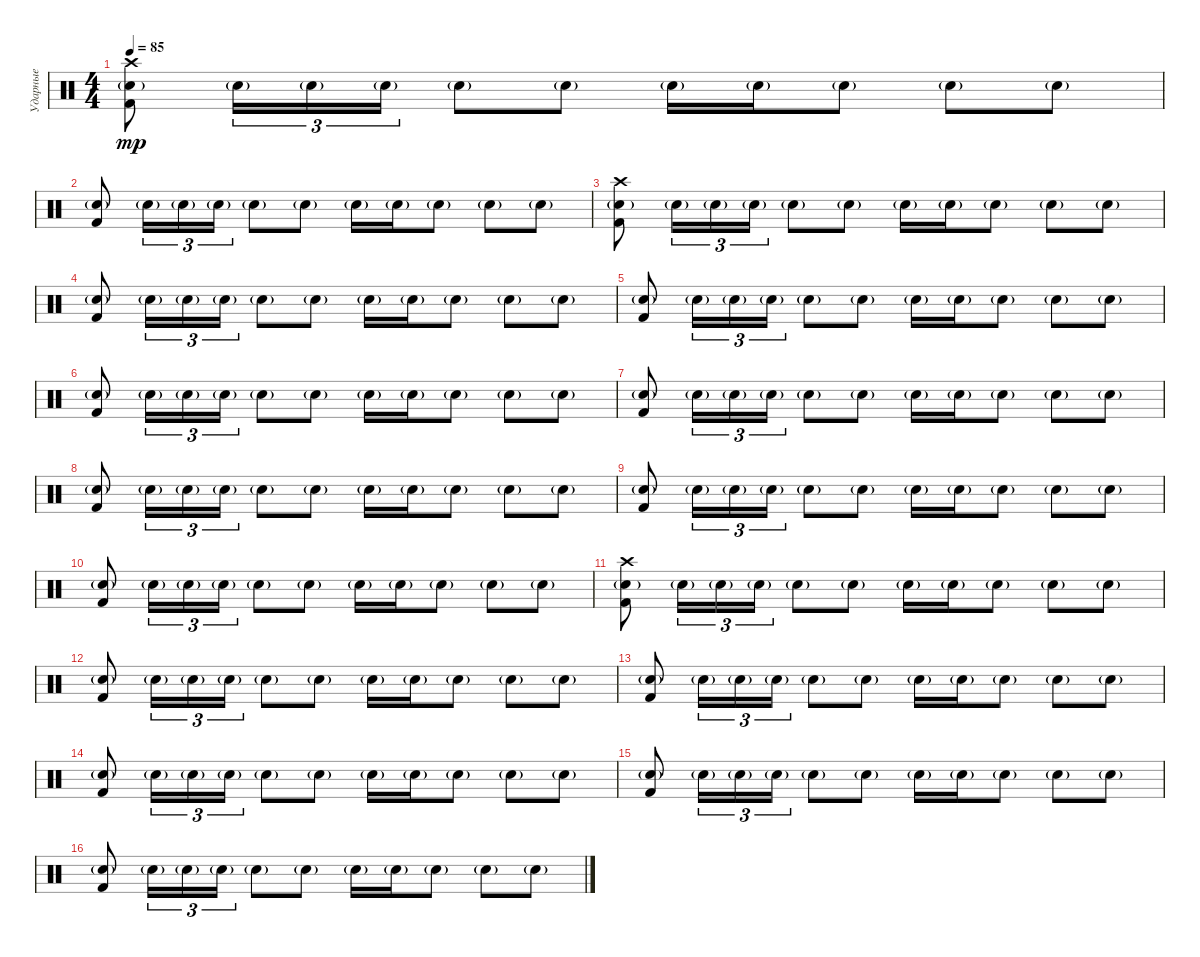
\track ("Ударные" "Ударные") {instrument percussion}
\staff {score}
\articulation defaults
\ts (4 4)
\tempo 85
\clef neutral
\ks c
("Crash high (hit)" "Electric Snare (hit)"{g} "Kick (hit) 2").8{dy mp} "Electric Snare (hit)"{g}.16{tu (3 2)} "Electric Snare (hit)"{g}.16{tu (3 2)} "Electric Snare (hit)"{g}.16{tu (3 2)} "Electric Snare (hit)"{g}.8 "Electric Snare (hit)"{g}.8 "Electric Snare (hit)"{g}.16 "Electric Snare (hit)"{g}.16 "Electric Snare (hit)"{g}.8 "Electric Snare (hit)"{g}.8 "Electric Snare (hit)"{g}.8 |
("Electric Snare (hit)"{g} "Kick (hit) 2").8 "Electric Snare (hit)"{g}.16{tu (3 2)} "Electric Snare (hit)"{g}.16{tu (3 2)} "Electric Snare (hit)"{g}.16{tu (3 2)} "Electric Snare (hit)"{g}.8 "Electric Snare (hit)"{g}.8 "Electric Snare (hit)"{g}.16 "Electric Snare (hit)"{g}.16 "Electric Snare (hit)"{g}.8 "Electric Snare (hit)"{g}.8 "Electric Snare (hit)"{g}.8 |
("Crash high (hit)" "Electric Snare (hit)"{g} "Kick (hit) 2").8 "Electric Snare (hit)"{g}.16{tu (3 2)} "Electric Snare (hit)"{g}.16{tu (3 2)} "Electric Snare (hit)"{g}.16{tu (3 2)} "Electric Snare (hit)"{g}.8 "Electric Snare (hit)"{g}.8 "Electric Snare (hit)"{g}.16 "Electric Snare (hit)"{g}.16 "Electric Snare (hit)"{g}.8 "Electric Snare (hit)"{g}.8 "Electric Snare (hit)"{g}.8 |
("Electric Snare (hit)"{g} "Kick (hit) 2").8 "Electric Snare (hit)"{g}.16{tu (3 2)} "Electric Snare (hit)"{g}.16{tu (3 2)} "Electric Snare (hit)"{g}.16{tu (3 2)} "Electric Snare (hit)"{g}.8 "Electric Snare (hit)"{g}.8 "Electric Snare (hit)"{g}.16 "Electric Snare (hit)"{g}.16 "Electric Snare (hit)"{g}.8 "Electric Snare (hit)"{g}.8 "Electric Snare (hit)"{g}.8 |
("Electric Snare (hit)"{g} "Kick (hit) 2").8 "Electric Snare (hit)"{g}.16{tu (3 2)} "Electric Snare (hit)"{g}.16{tu (3 2)} "Electric Snare (hit)"{g}.16{tu (3 2)} "Electric Snare (hit)"{g}.8 "Electric Snare (hit)"{g}.8 "Electric Snare (hit)"{g}.16 "Electric Snare (hit)"{g}.16 "Electric Snare (hit)"{g}.8 "Electric Snare (hit)"{g}.8 "Electric Snare (hit)"{g}.8 |
("Electric Snare (hit)"{g} "Kick (hit) 2").8 "Electric Snare (hit)"{g}.16{tu (3 2)} "Electric Snare (hit)"{g}.16{tu (3 2)} "Electric Snare (hit)"{g}.16{tu (3 2)} "Electric Snare (hit)"{g}.8 "Electric Snare (hit)"{g}.8 "Electric Snare (hit)"{g}.16 "Electric Snare (hit)"{g}.16 "Electric Snare (hit)"{g}.8 "Electric Snare (hit)"{g}.8 "Electric Snare (hit)"{g}.8 |
("Electric Snare (hit)"{g} "Kick (hit) 2").8 "Electric Snare (hit)"{g}.16{tu (3 2)} "Electric Snare (hit)"{g}.16{tu (3 2)} "Electric Snare (hit)"{g}.16{tu (3 2)} "Electric Snare (hit)"{g}.8 "Electric Snare (hit)"{g}.8 "Electric Snare (hit)"{g}.16 "Electric Snare (hit)"{g}.16 "Electric Snare (hit)"{g}.8 "Electric Snare (hit)"{g}.8 "Electric Snare (hit)"{g}.8 |
("Electric Snare (hit)"{g} "Kick (hit) 2").8 "Electric Snare (hit)"{g}.16{tu (3 2)} "Electric Snare (hit)"{g}.16{tu (3 2)} "Electric Snare (hit)"{g}.16{tu (3 2)} "Electric Snare (hit)"{g}.8 "Electric Snare (hit)"{g}.8 "Electric Snare (hit)"{g}.16 "Electric Snare (hit)"{g}.16 "Electric Snare (hit)"{g}.8 "Electric Snare (hit)"{g}.8 "Electric Snare (hit)"{g}.8 |
("Electric Snare (hit)"{g} "Kick (hit) 2").8 "Electric Snare (hit)"{g}.16{tu (3 2)} "Electric Snare (hit)"{g}.16{tu (3 2)} "Electric Snare (hit)"{g}.16{tu (3 2)} "Electric Snare (hit)"{g}.8 "Electric Snare (hit)"{g}.8 "Electric Snare (hit)"{g}.16 "Electric Snare (hit)"{g}.16 "Electric Snare (hit)"{g}.8 "Electric Snare (hit)"{g}.8 "Electric Snare (hit)"{g}.8 |
("Electric Snare (hit)"{g} "Kick (hit) 2").8 "Electric Snare (hit)"{g}.16{tu (3 2)} "Electric Snare (hit)"{g}.16{tu (3 2)} "Electric Snare (hit)"{g}.16{tu (3 2)} "Electric Snare (hit)"{g}.8 "Electric Snare (hit)"{g}.8 "Electric Snare (hit)"{g}.16 "Electric Snare (hit)"{g}.16 "Electric Snare (hit)"{g}.8 "Electric Snare (hit)"{g}.8 "Electric Snare (hit)"{g}.8 |
("Crash high (hit)" "Electric Snare (hit)"{g} "Kick (hit) 2").8 "Electric Snare (hit)"{g}.16{tu (3 2)} "Electric Snare (hit)"{g}.16{tu (3 2)} "Electric Snare (hit)"{g}.16{tu (3 2)} "Electric Snare (hit)"{g}.8 "Electric Snare (hit)"{g}.8 "Electric Snare (hit)"{g}.16 "Electric Snare (hit)"{g}.16 "Electric Snare (hit)"{g}.8 "Electric Snare (hit)"{g}.8 "Electric Snare (hit)"{g}.8 |
("Electric Snare (hit)"{g} "Kick (hit) 2").8 "Electric Snare (hit)"{g}.16{tu (3 2)} "Electric Snare (hit)"{g}.16{tu (3 2)} "Electric Snare (hit)"{g}.16{tu (3 2)} "Electric Snare (hit)"{g}.8 "Electric Snare (hit)"{g}.8 "Electric Snare (hit)"{g}.16 "Electric Snare (hit)"{g}.16 "Electric Snare (hit)"{g}.8 "Electric Snare (hit)"{g}.8 "Electric Snare (hit)"{g}.8 |
("Electric Snare (hit)"{g} "Kick (hit) 2").8 "Electric Snare (hit)"{g}.16{tu (3 2)} "Electric Snare (hit)"{g}.16{tu (3 2)} "Electric Snare (hit)"{g}.16{tu (3 2)} "Electric Snare (hit)"{g}.8 "Electric Snare (hit)"{g}.8 "Electric Snare (hit)"{g}.16 "Electric Snare (hit)"{g}.16 "Electric Snare (hit)"{g}.8 "Electric Snare (hit)"{g}.8 "Electric Snare (hit)"{g}.8 |
("Electric Snare (hit)"{g} "Kick (hit) 2").8 "Electric Snare (hit)"{g}.16{tu (3 2)} "Electric Snare (hit)"{g}.16{tu (3 2)} "Electric Snare (hit)"{g}.16{tu (3 2)} "Electric Snare (hit)"{g}.8 "Electric Snare (hit)"{g}.8 "Electric Snare (hit)"{g}.16 "Electric Snare (hit)"{g}.16 "Electric Snare (hit)"{g}.8 "Electric Snare (hit)"{g}.8 "Electric Snare (hit)"{g}.8 |
("Electric Snare (hit)"{g} "Kick (hit) 2").8 "Electric Snare (hit)"{g}.16{tu (3 2)} "Electric Snare (hit)"{g}.16{tu (3 2)} "Electric Snare (hit)"{g}.16{tu (3 2)} "Electric Snare (hit)"{g}.8 "Electric Snare (hit)"{g}.8 "Electric Snare (hit)"{g}.16 "Electric Snare (hit)"{g}.16 "Electric Snare (hit)"{g}.8 "Electric Snare (hit)"{g}.8 "Electric Snare (hit)"{g}.8 |
("Electric Snare (hit)"{g} "Kick (hit) 2").8 "Electric Snare (hit)"{g}.16{tu (3 2)} "Electric Snare (hit)"{g}.16{tu (3 2)} "Electric Snare (hit)"{g}.16{tu (3 2)} "Electric Snare (hit)"{g}.8 "Electric Snare (hit)"{g}.8 "Electric Snare (hit)"{g}.16 "Electric Snare (hit)"{g}.16 "Electric Snare (hit)"{g}.8 "Electric Snare (hit)"{g}.8 "Electric Snare (hit)"{g}.8
